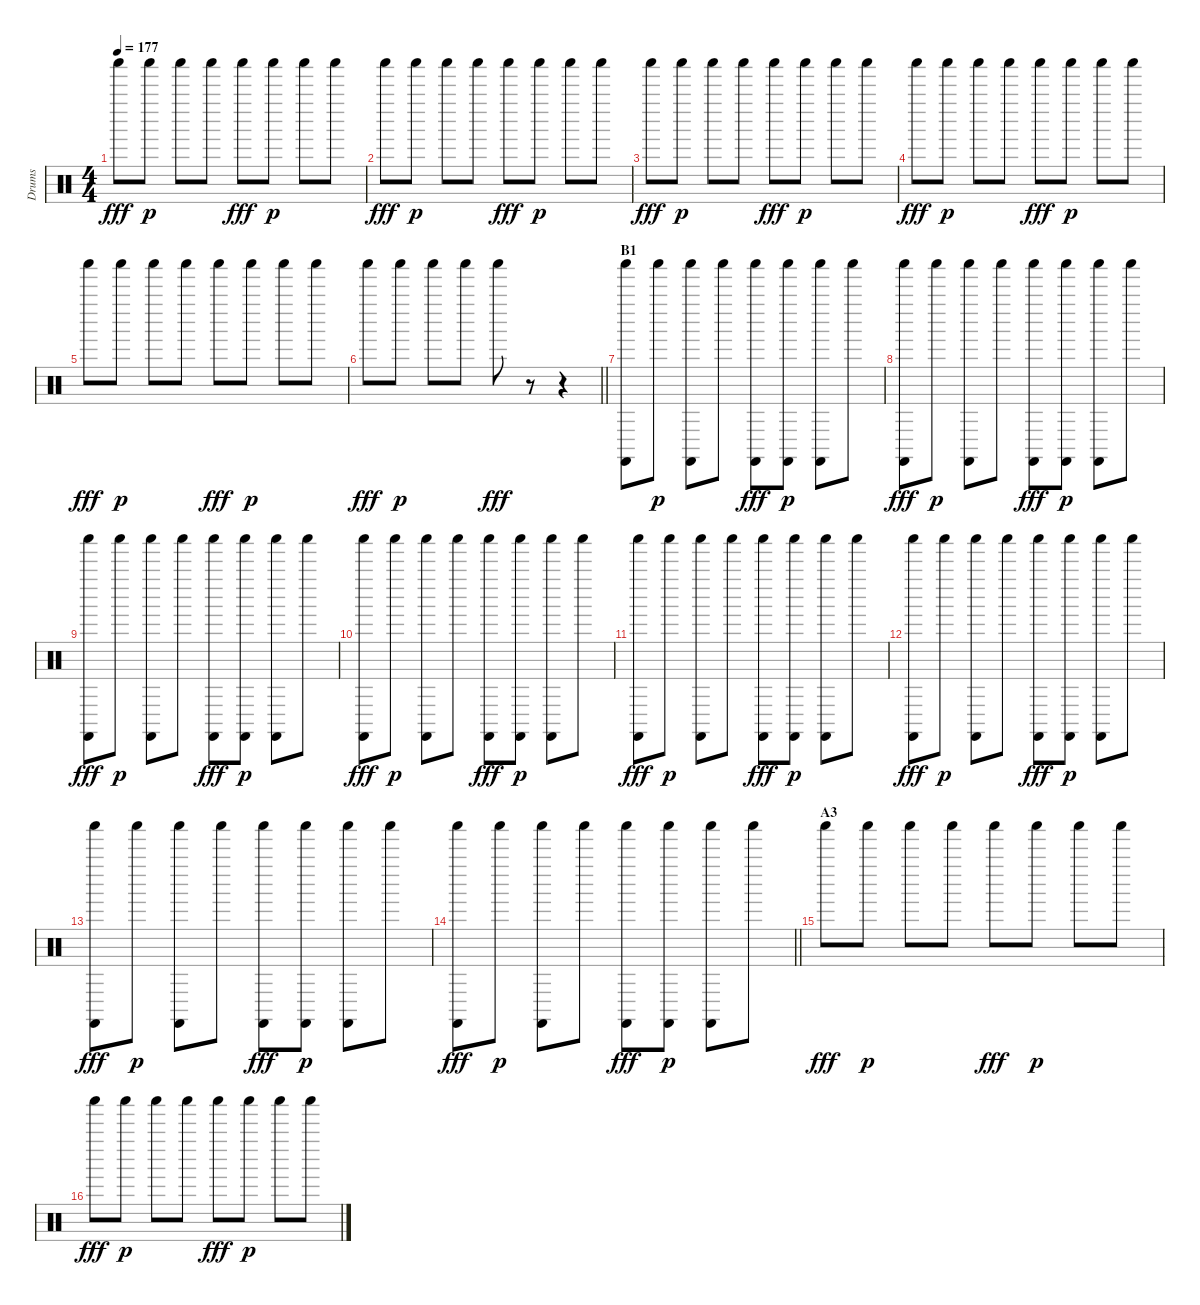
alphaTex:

\track ("Drums" "Drums") {instrument percussion}
\staff {score}
\articulation defaults
\ts (4 4)
\tempo 177
\clef neutral
\ks c "Shaker (hit)".8{dy fff} "Shaker (hit)".8{dy p} "Shaker (hit)".8 "Shaker (hit)".8 "Shaker (hit)".8{dy fff} "Shaker (hit)".8{dy p} "Shaker (hit)".8 "Shaker (hit)".8
|
"Shaker (hit)".8{dy fff} "Shaker (hit)".8{dy p} "Shaker (hit)".8 "Shaker (hit)".8 "Shaker (hit)".8{dy fff} "Shaker (hit)".8{dy p} "Shaker (hit)".8 "Shaker (hit)".8 |
"Shaker (hit)".8{dy fff} "Shaker (hit)".8{dy p} "Shaker (hit)".8 "Shaker (hit)".8 "Shaker (hit)".8{dy fff} "Shaker (hit)".8{dy p} "Shaker (hit)".8 "Shaker (hit)".8 |
"Shaker (hit)".8{dy fff} "Shaker (hit)".8{dy p} "Shaker (hit)".8 "Shaker (hit)".8 "Shaker (hit)".8{dy fff} "Shaker (hit)".8{dy p} "Shaker (hit)".8 "Shaker (hit)".8 |
"Shaker (hit)".8{dy fff} "Shaker (hit)".8{dy p} "Shaker (hit)".8 "Shaker (hit)".8 "Shaker (hit)".8{dy fff} "Shaker (hit)".8{dy p} "Shaker (hit)".8 "Shaker (hit)".8 |
\barLineRight lightlight "Shaker (hit)".8{dy fff} "Shaker (hit)".8{dy p} "Shaker (hit)".8 "Shaker (hit)".8 "Shaker (hit)".8{dy fff}
r.8 r.4 |
\section ("" "B1")
("Castanets (hit)" "Shaker (hit)").8 "Shaker (hit)".8{dy p} ("Castanets (hit)" "Shaker (hit)").8 "Shaker (hit)".8 ("Castanets (hit)" "Shaker (hit)").8{dy fff} ("Castanets (hit)" "Shaker (hit)").8{dy p} ("Castanets (hit)" "Shaker (hit)").8 "Shaker (hit)".8 |
("Castanets (hit)" "Shaker (hit)").8{dy fff} "Shaker (hit)".8{dy p} ("Castanets (hit)" "Shaker (hit)").8 "Shaker (hit)".8 ("Castanets (hit)" "Shaker (hit)").8{dy fff} ("Castanets (hit)" "Shaker (hit)").8{dy p} ("Castanets (hit)" "Shaker (hit)").8 "Shaker (hit)".8 |
("Castanets (hit)" "Shaker (hit)").8{dy fff} "Shaker (hit)".8{dy p} ("Castanets (hit)" "Shaker (hit)").8 "Shaker (hit)".8 ("Castanets (hit)" "Shaker (hit)").8{dy fff} ("Castanets (hit)" "Shaker (hit)").8{dy p} ("Castanets (hit)" "Shaker (hit)").8 "Shaker (hit)".8 |
("Castanets (hit)" "Shaker (hit)").8{dy fff} "Shaker (hit)".8{dy p} ("Castanets (hit)" "Shaker (hit)").8 "Shaker (hit)".8 ("Castanets (hit)" "Shaker (hit)").8{dy fff} ("Castanets (hit)" "Shaker (hit)").8{dy p} ("Castanets (hit)" "Shaker (hit)").8 "Shaker (hit)".8 |
("Castanets (hit)" "Shaker (hit)").8{dy fff} "Shaker (hit)".8{dy p} ("Castanets (hit)" "Shaker (hit)").8 "Shaker (hit)".8 ("Castanets (hit)" "Shaker (hit)").8{dy fff} ("Castanets (hit)" "Shaker (hit)").8{dy p} ("Castanets (hit)" "Shaker (hit)").8 "Shaker (hit)".8 |
("Castanets (hit)" "Shaker (hit)").8{dy fff} "Shaker (hit)".8{dy p} ("Castanets (hit)" "Shaker (hit)").8 "Shaker (hit)".8 ("Castanets (hit)" "Shaker (hit)").8{dy fff} ("Castanets (hit)" "Shaker (hit)").8{dy p} ("Castanets (hit)" "Shaker (hit)").8 "Shaker (hit)".8 |
("Castanets (hit)" "Shaker (hit)").8{dy fff} "Shaker (hit)".8{dy p} ("Castanets (hit)" "Shaker (hit)").8 "Shaker (hit)".8 ("Castanets (hit)" "Shaker (hit)").8{dy fff} ("Castanets (hit)" "Shaker (hit)").8{dy p} ("Castanets (hit)" "Shaker (hit)").8 "Shaker (hit)".8 |
\barLineRight lightlight
("Castanets (hit)" "Shaker (hit)").8{dy fff} "Shaker (hit)".8{dy p} ("Castanets (hit)" "Shaker (hit)").8 "Shaker (hit)".8 ("Castanets (hit)" "Shaker (hit)").8{dy fff} ("Castanets (hit)" "Shaker (hit)").8{dy p} ("Castanets (hit)" "Shaker (hit)").8 "Shaker (hit)".8 |
\section ("" "A3")
"Shaker (hit)".8{dy fff} "Shaker (hit)".8{dy p} "Shaker (hit)".8 "Shaker (hit)".8 "Shaker (hit)".8{dy fff} "Shaker (hit)".8{dy p} "Shaker (hit)".8 "Shaker (hit)".8 |
"Shaker (hit)".8{dy fff} "Shaker (hit)".8{dy p} "Shaker (hit)".8 "Shaker (hit)".8 "Shaker (hit)".8{dy fff} "Shaker (hit)".8{dy p} "Shaker (hit)".8 "Shaker (hit)".8
